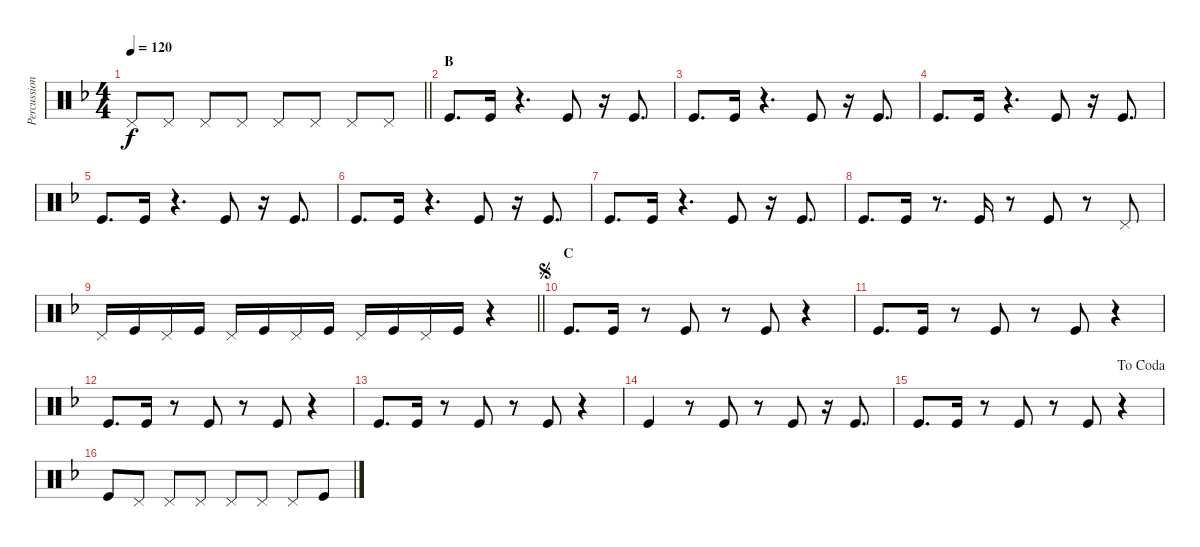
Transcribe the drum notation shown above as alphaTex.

\track ("Percussion foot" "Percussion") {instrument percussion}
\staff {score}
\articulation defaults
\ts (4 4)
\tempo 120
\clef neutral
\barLineRight lightlight
\ks f "Pedal Hi-Hat (hit)".8{dy f} "Pedal Hi-Hat (hit)".8 "Pedal Hi-Hat (hit)".8 "Pedal Hi-Hat (hit)".8 "Pedal Hi-Hat (hit)".8 "Pedal Hi-Hat (hit)".8 "Pedal Hi-Hat (hit)".8 "Pedal Hi-Hat (hit)".8
|
\section ("" "B")
"Kick (hit)".8{d} "Kick (hit)".16 r.4{d} "Kick (hit)".8 r.16 "Kick (hit)".8{d} |
"Kick (hit)".8{d} "Kick (hit)".16 r.4{d} "Kick (hit)".8 r.16 "Kick (hit)".8{d} |
"Kick (hit)".8{d} "Kick (hit)".16 r.4{d} "Kick (hit)".8 r.16 "Kick (hit)".8{d} |
"Kick (hit)".8{d} "Kick (hit)".16 r.4{d} "Kick (hit)".8 r.16 "Kick (hit)".8{d} |
"Kick (hit)".8{d} "Kick (hit)".16 r.4{d} "Kick (hit)".8 r.16 "Kick (hit)".8{d} |
"Kick (hit)".8{d} "Kick (hit)".16 r.4{d} "Kick (hit)".8 r.16 "Kick (hit)".8{d} |
"Kick (hit)".8{d} "Kick (hit)".16 r.8{d} "Kick (hit)".16 r.8 "Kick (hit)".8 r.8 "Pedal Hi-Hat (hit)".8 |
\barLineRight lightlight "Pedal Hi-Hat (hit)".16 "Kick (hit)".16 "Pedal Hi-Hat (hit)".16 "Kick (hit)".16 "Pedal Hi-Hat (hit)".16 "Kick (hit)".16 "Pedal Hi-Hat (hit)".16 "Kick (hit)".16 "Pedal Hi-Hat (hit)".16 "Kick (hit)".16 "Pedal Hi-Hat (hit)".16 "Kick (hit)".16
r.4 |
\section ("" "C")
\jump segno "Kick (hit)".8{d} "Kick (hit)".16
r.8 "Kick (hit)".8 r.8 "Kick (hit)".8 r.4 |
"Kick (hit)".8{d} "Kick (hit)".16 r.8 "Kick (hit)".8 r.8 "Kick (hit)".8 r.4 |
"Kick (hit)".8{d} "Kick (hit)".16 r.8 "Kick (hit)".8 r.8 "Kick (hit)".8 r.4 |
"Kick (hit)".8{d} "Kick (hit)".16 r.8 "Kick (hit)".8 r.8 "Kick (hit)".8 r.4 |
"Kick (hit)".4 r.8 "Kick (hit)".8 r.8 "Kick (hit)".8 r.16 "Kick (hit)".8{d} |
\jump dacoda "Kick (hit)".8{d} "Kick (hit)".16
r.8 "Kick (hit)".8 r.8 "Kick (hit)".8 r.4 |
"Kick (hit)".8 "Pedal Hi-Hat (hit)".8 "Pedal Hi-Hat (hit)".8 "Pedal Hi-Hat (hit)".8 "Pedal Hi-Hat (hit)".8 "Pedal Hi-Hat (hit)".8 "Pedal Hi-Hat (hit)".8 "Kick (hit)".8
